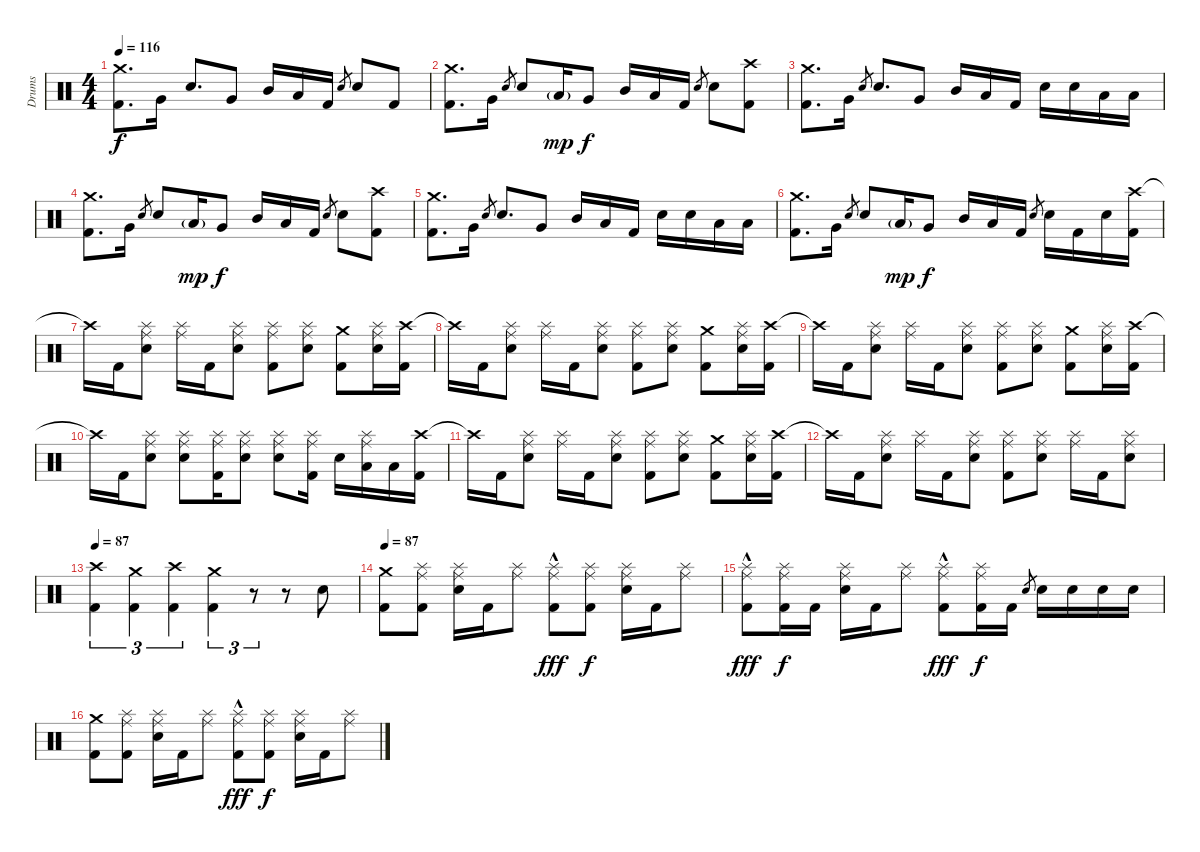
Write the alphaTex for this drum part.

\track ("Drums" "Drums") {instrument percussion}
\staff {score}
\articulation defaults
\ts (4 4)
\tempo 116
\clef neutral
\ks c
("Crash medium (hit)" "Kick (hit) 2").8{d dy f} "Very Low Tom (hit)".16 "Electric Snare (hit)".8{d} "Very Low Tom (hit)".8 "Mid Tom (hit)".16 "Low Tom (hit)".16 "Kick (hit) 2".16 "Electric Snare (hit)".8{gr} "Electric Snare (hit)".8 "Kick (hit) 2".8 |
("Crash medium (hit)" "Kick (hit) 2").8{d} "Very Low Tom (hit)".16 "Electric Snare (hit)".8{gr} "Electric Snare (hit)".8 "Low Tom (hit)"{g}.16{dy mp} "Very Low Tom (hit)".8{dy f} "Mid Tom (hit)".16 "Low Tom (hit)".16 "Kick (hit) 2".16 "Electric Snare (hit)".8{gr} "Electric Snare (hit)".8 ("Crash high (hit)" "Kick (hit) 2").8 |
("Crash medium (hit)" "Kick (hit) 2").8{d} "Very Low Tom (hit)".16 "Electric Snare (hit)".8{gr} "Electric Snare (hit)".8{d} "Very Low Tom (hit)".8 "Mid Tom (hit)".16 "Low Tom (hit)".16 "Kick (hit) 2".16 "Electric Snare (hit)".16 "Electric Snare (hit)".16 "Low Tom (hit)".16 "Low Tom (hit)".16 |
("Crash medium (hit)" "Kick (hit) 2").8{d} "Very Low Tom (hit)".16 "Electric Snare (hit)".8{gr} "Electric Snare (hit)".8 "Low Tom (hit)"{g}.16{dy mp} "Very Low Tom (hit)".8{dy f} "Mid Tom (hit)".16 "Low Tom (hit)".16 "Kick (hit) 2".16 "Electric Snare (hit)".8{gr} "Electric Snare (hit)".8 ("Crash high (hit)" "Kick (hit) 2").8 |
("Crash medium (hit)" "Kick (hit) 2").8{d} "Very Low Tom (hit)".16 "Electric Snare (hit)".8{gr} "Electric Snare (hit)".8{d} "Very Low Tom (hit)".8 "Mid Tom (hit)".16 "Low Tom (hit)".16 "Kick (hit) 2".16 "Electric Snare (hit)".16 "Electric Snare (hit)".16 "Low Tom (hit)".16 "Low Tom (hit)".16 |
("Crash medium (hit)" "Kick (hit) 2").8{d} "Very Low Tom (hit)".16 "Electric Snare (hit)".8{gr} "Electric Snare (hit)".8 "Low Tom (hit)"{g}.16{dy mp} "Very Low Tom (hit)".8{dy f} "Mid Tom (hit)".16 "Low Tom (hit)".16 "Kick (hit) 2".16 "Electric Snare (hit)".8{gr} "Electric Snare (hit)".16 "Kick (hit) 2".16 "Electric Snare (hit)".16 ("Crash high (hit)" "Kick (hit) 2").16 |
"Crash high (hit)"{t}.16 "Kick (hit) 2".16 ("Ride (middle)" "Splash (hit)" "Electric Snare (hit)").8 ("Ride (middle)" "Splash (hit)").16 "Kick (hit) 2".16 ("Ride (middle)" "Splash (hit)" "Electric Snare (hit)").8 ("Ride (middle)" "Splash (hit)" "Kick (hit) 2").8 ("Ride (middle)" "Splash (hit)" "Electric Snare (hit)").8 ("Crash medium (hit)" "Kick (hit) 2").8 ("Ride (middle)" "Splash (hit)" "Electric Snare (hit)").16 ("Crash high (hit)" "Kick (hit) 2").16 |
"Crash high (hit)"{t}.16 "Kick (hit) 2".16 ("Ride (middle)" "Splash (hit)" "Electric Snare (hit)").8 ("Ride (middle)" "Splash (hit)").16 "Kick (hit) 2".16 ("Ride (middle)" "Splash (hit)" "Electric Snare (hit)").8 ("Ride (middle)" "Splash (hit)" "Kick (hit) 2").8 ("Ride (middle)" "Splash (hit)" "Electric Snare (hit)").8 ("Crash medium (hit)" "Kick (hit) 2").8 ("Ride (middle)" "Splash (hit)" "Electric Snare (hit)").16 ("Crash high (hit)" "Kick (hit) 2").16 |
"Crash high (hit)"{t}.16 "Kick (hit) 2".16 ("Ride (middle)" "Splash (hit)" "Electric Snare (hit)").8 ("Ride (middle)" "Splash (hit)").16 "Kick (hit) 2".16 ("Ride (middle)" "Splash (hit)" "Electric Snare (hit)").8 ("Ride (middle)" "Splash (hit)" "Kick (hit) 2").8 ("Ride (middle)" "Splash (hit)" "Electric Snare (hit)").8 ("Crash medium (hit)" "Kick (hit) 2").8 ("Ride (middle)" "Splash (hit)" "Electric Snare (hit)").16 ("Crash high (hit)" "Kick (hit) 2").16 |
"Crash high (hit)"{t}.16 "Kick (hit) 2".16 ("Ride (middle)" "Splash (hit)" "Electric Snare (hit)").8 ("Ride (middle)" "Splash (hit)" "Electric Snare (hit)").8 ("Ride (middle)" "Splash (hit)" "Kick (hit) 2").16 ("Ride (middle)" "Splash (hit)" "Electric Snare (hit)").8 ("Ride (middle)" "Splash (hit)" "Electric Snare (hit)").8 ("Ride (middle)" "Splash (hit)" "Kick (hit) 2").16 "Electric Snare (hit)".16 ("Ride (middle)" "Splash (hit)" "Low Tom (hit)").16 "Low Tom (hit)".16 ("Crash high (hit)" "Kick (hit) 2").16 |
"Crash high (hit)"{t}.16 "Kick (hit) 2".16 ("Ride (middle)" "Splash (hit)" "Electric Snare (hit)").8 ("Ride (middle)" "Splash (hit)").16 "Kick (hit) 2".16 ("Ride (middle)" "Splash (hit)" "Electric Snare (hit)").8 ("Ride (middle)" "Splash (hit)" "Kick (hit) 2").8 ("Ride (middle)" "Splash (hit)" "Electric Snare (hit)").8 ("Crash medium (hit)" "Kick (hit) 2").8 ("Ride (middle)" "Splash (hit)" "Electric Snare (hit)").16 ("Crash high (hit)" "Kick (hit) 2").16 |
"Crash high (hit)"{t}.16 "Kick (hit) 2".16 ("Ride (middle)" "Splash (hit)" "Electric Snare (hit)").8 ("Ride (middle)" "Splash (hit)").16 "Kick (hit) 2".16 ("Ride (middle)" "Splash (hit)" "Electric Snare (hit)").8 ("Ride (middle)" "Splash (hit)" "Kick (hit) 2").8 ("Ride (middle)" "Splash (hit)" "Electric Snare (hit)").8 ("Ride (middle)" "Splash (hit)").16 "Kick (hit) 2".16 ("Ride (middle)" "Splash (hit)" "Electric Snare (hit)").8 |
\tempo 87
("Crash high (hit)" "Kick (hit) 2").4{tu (3 2)} ("Crash medium (hit)" "Kick (hit) 2").4{tu (3 2)} ("Crash high (hit)" "Kick (hit) 2").4{tu (3 2)} ("Crash medium (hit)" "Kick (hit) 2").4{tu (3 2)} r.8{tu (3 2)} r.8 "Electric Snare (hit)".8 |
\tempo 87
("Crash medium (hit)" "Kick (hit) 2").8 ("Ride (middle)" "Splash (hit)" "Kick (hit) 2").8 ("Ride (middle)" "Splash (hit)" "Electric Snare (hit)").16 "Kick (hit) 2".16 ("Ride (middle)" "Splash (hit)").8 ("Ride (middle)" "Splash (hit)"{hac} "Kick (hit) 2").8{dy fff} ("Ride (middle)" "Splash (hit)" "Kick (hit) 2").8{dy f} ("Ride (middle)" "Splash (hit)" "Electric Snare (hit)").16 "Kick (hit) 2".16 ("Ride (middle)" "Splash (hit)").8 |
("Ride (middle)" "Splash (hit)"{hac} "Kick (hit) 2").8{dy fff} ("Ride (middle)" "Splash (hit)" "Kick (hit) 2").16{dy f} "Kick (hit) 2".16 ("Ride (middle)" "Splash (hit)" "Electric Snare (hit)").16 "Kick (hit) 2".16 ("Ride (middle)" "Splash (hit)").8 ("Ride (middle)" "Splash (hit)"{hac} "Kick (hit) 2").8{dy fff} ("Ride (middle)" "Splash (hit)" "Kick (hit) 2").16{dy f} "Kick (hit) 2".16 "Electric Snare (hit)".8{gr} "Electric Snare (hit)".16 "Electric Snare (hit)".16 "Electric Snare (hit)".16 "Electric Snare (hit)".16 |
("Crash medium (hit)" "Kick (hit) 2").8 ("Ride (middle)" "Splash (hit)" "Kick (hit) 2").8 ("Ride (middle)" "Splash (hit)" "Electric Snare (hit)").16 "Kick (hit) 2".16 ("Ride (middle)" "Splash (hit)").8 ("Ride (middle)" "Splash (hit)"{hac} "Kick (hit) 2").8{dy fff} ("Ride (middle)" "Splash (hit)" "Kick (hit) 2").8{dy f} ("Ride (middle)" "Splash (hit)" "Electric Snare (hit)").16 "Kick (hit) 2".16 ("Ride (middle)" "Splash (hit)").8
